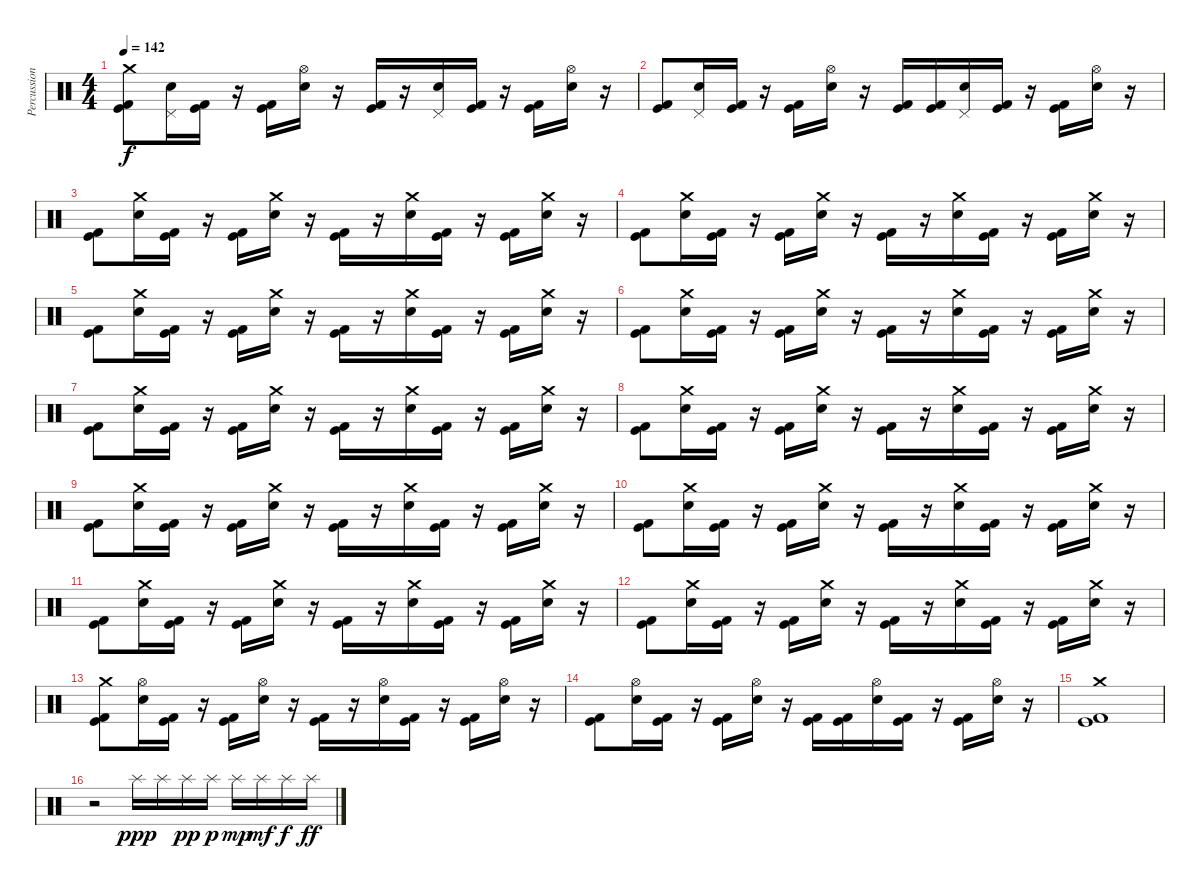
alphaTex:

\track ("Percussions" "Percussion") {instrument percussion}
\staff {score}
\articulation defaults
\ts (4 4)
\tempo 142
\clef neutral
\ks c
("Crash medium (hit)" "Kick (hit)" "Kick (hit) 2").8{dy f} ("Pedal Hi-Hat (hit)" "Electric Snare (hit)").16 ("Kick (hit)" "Kick (hit) 2").16 r.16 ("Kick (hit)" "Kick (hit) 2").16 ("Hi-Hat (open)" "Electric Snare (hit)").16 r.16 ("Kick (hit)" "Kick (hit) 2").16 r.16 ("Pedal Hi-Hat (hit)" "Electric Snare (hit)").16 ("Kick (hit)" "Kick (hit) 2").16 r.16 ("Kick (hit)" "Kick (hit) 2").16 ("Hi-Hat (open)" "Electric Snare (hit)").16 r.16 |
("Kick (hit)" "Kick (hit) 2").8 ("Pedal Hi-Hat (hit)" "Electric Snare (hit)").16 ("Kick (hit)" "Kick (hit) 2").16 r.16 ("Kick (hit)" "Kick (hit) 2").16 ("Hi-Hat (open)" "Electric Snare (hit)").16 r.16 ("Kick (hit)" "Kick (hit) 2").16 ("Kick (hit)" "Kick (hit) 2").16 ("Pedal Hi-Hat (hit)" "Electric Snare (hit)").16 ("Kick (hit)" "Kick (hit) 2").16 r.16 ("Kick (hit)" "Kick (hit) 2").16 ("Hi-Hat (open)" "Electric Snare (hit)").16 r.16 |
("Kick (hit)" "Kick (hit) 2").8 ("Crash medium (hit)" "Electric Snare (hit)").16 ("Kick (hit)" "Kick (hit) 2").16 r.16 ("Kick (hit)" "Kick (hit) 2").16 ("Crash medium (hit)" "Electric Snare (hit)").16 r.16 ("Kick (hit)" "Kick (hit) 2").16 r.16 ("Crash medium (hit)" "Electric Snare (hit)").16 ("Kick (hit)" "Kick (hit) 2").16 r.16 ("Kick (hit)" "Kick (hit) 2").16 ("Crash medium (hit)" "Electric Snare (hit)").16 r.16 |
("Kick (hit)" "Kick (hit) 2").8 ("Crash medium (hit)" "Electric Snare (hit)").16 ("Kick (hit)" "Kick (hit) 2").16 r.16 ("Kick (hit)" "Kick (hit) 2").16 ("Crash medium (hit)" "Electric Snare (hit)").16 r.16 ("Kick (hit)" "Kick (hit) 2").16 r.16 ("Crash medium (hit)" "Electric Snare (hit)").16 ("Kick (hit)" "Kick (hit) 2").16 r.16 ("Kick (hit)" "Kick (hit) 2").16 ("Crash medium (hit)" "Electric Snare (hit)").16 r.16 |
("Kick (hit)" "Kick (hit) 2").8 ("Crash medium (hit)" "Electric Snare (hit)").16 ("Kick (hit)" "Kick (hit) 2").16 r.16 ("Kick (hit)" "Kick (hit) 2").16 ("Crash medium (hit)" "Electric Snare (hit)").16 r.16 ("Kick (hit)" "Kick (hit) 2").16 r.16 ("Crash medium (hit)" "Electric Snare (hit)").16 ("Kick (hit)" "Kick (hit) 2").16 r.16 ("Kick (hit)" "Kick (hit) 2").16 ("Crash medium (hit)" "Electric Snare (hit)").16 r.16 |
("Kick (hit)" "Kick (hit) 2").8 ("Crash medium (hit)" "Electric Snare (hit)").16 ("Kick (hit)" "Kick (hit) 2").16 r.16 ("Kick (hit)" "Kick (hit) 2").16 ("Crash medium (hit)" "Electric Snare (hit)").16 r.16 ("Kick (hit)" "Kick (hit) 2").16 r.16 ("Crash medium (hit)" "Electric Snare (hit)").16 ("Kick (hit)" "Kick (hit) 2").16 r.16 ("Kick (hit)" "Kick (hit) 2").16 ("Crash medium (hit)" "Electric Snare (hit)").16 r.16 |
("Kick (hit)" "Kick (hit) 2").8 ("Crash medium (hit)" "Electric Snare (hit)").16 ("Kick (hit)" "Kick (hit) 2").16 r.16 ("Kick (hit)" "Kick (hit) 2").16 ("Crash medium (hit)" "Electric Snare (hit)").16 r.16 ("Kick (hit)" "Kick (hit) 2").16 r.16 ("Crash medium (hit)" "Electric Snare (hit)").16 ("Kick (hit)" "Kick (hit) 2").16 r.16 ("Kick (hit)" "Kick (hit) 2").16 ("Crash medium (hit)" "Electric Snare (hit)").16 r.16 |
("Kick (hit)" "Kick (hit) 2").8 ("Crash medium (hit)" "Electric Snare (hit)").16 ("Kick (hit)" "Kick (hit) 2").16 r.16 ("Kick (hit)" "Kick (hit) 2").16 ("Crash medium (hit)" "Electric Snare (hit)").16 r.16 ("Kick (hit)" "Kick (hit) 2").16 r.16 ("Crash medium (hit)" "Electric Snare (hit)").16 ("Kick (hit)" "Kick (hit) 2").16 r.16 ("Kick (hit)" "Kick (hit) 2").16 ("Crash medium (hit)" "Electric Snare (hit)").16 r.16 |
("Kick (hit)" "Kick (hit) 2").8 ("Crash medium (hit)" "Electric Snare (hit)").16 ("Kick (hit)" "Kick (hit) 2").16 r.16 ("Kick (hit)" "Kick (hit) 2").16 ("Crash medium (hit)" "Electric Snare (hit)").16 r.16 ("Kick (hit)" "Kick (hit) 2").16 r.16 ("Crash medium (hit)" "Electric Snare (hit)").16 ("Kick (hit)" "Kick (hit) 2").16 r.16 ("Kick (hit)" "Kick (hit) 2").16 ("Crash medium (hit)" "Electric Snare (hit)").16 r.16 |
("Kick (hit)" "Kick (hit) 2").8 ("Crash medium (hit)" "Electric Snare (hit)").16 ("Kick (hit)" "Kick (hit) 2").16 r.16 ("Kick (hit)" "Kick (hit) 2").16 ("Crash medium (hit)" "Electric Snare (hit)").16 r.16 ("Kick (hit)" "Kick (hit) 2").16 r.16 ("Crash medium (hit)" "Electric Snare (hit)").16 ("Kick (hit)" "Kick (hit) 2").16 r.16 ("Kick (hit)" "Kick (hit) 2").16 ("Crash medium (hit)" "Electric Snare (hit)").16 r.16 |
("Kick (hit)" "Kick (hit) 2").8 ("Crash medium (hit)" "Electric Snare (hit)").16 ("Kick (hit)" "Kick (hit) 2").16 r.16 ("Kick (hit)" "Kick (hit) 2").16 ("Crash medium (hit)" "Electric Snare (hit)").16 r.16 ("Kick (hit)" "Kick (hit) 2").16 r.16 ("Crash medium (hit)" "Electric Snare (hit)").16 ("Kick (hit)" "Kick (hit) 2").16 r.16 ("Kick (hit)" "Kick (hit) 2").16 ("Crash medium (hit)" "Electric Snare (hit)").16 r.16 |
("Kick (hit)" "Kick (hit) 2").8 ("Crash medium (hit)" "Electric Snare (hit)").16 ("Kick (hit)" "Kick (hit) 2").16 r.16 ("Kick (hit)" "Kick (hit) 2").16 ("Crash medium (hit)" "Electric Snare (hit)").16 r.16 ("Kick (hit)" "Kick (hit) 2").16 r.16 ("Crash medium (hit)" "Electric Snare (hit)").16 ("Kick (hit)" "Kick (hit) 2").16 r.16 ("Kick (hit)" "Kick (hit) 2").16 ("Crash medium (hit)" "Electric Snare (hit)").16 r.16 |
("Crash medium (hit)" "Kick (hit)" "Kick (hit) 2").8 ("Hi-Hat (open)" "Electric Snare (hit)").16 ("Kick (hit)" "Kick (hit) 2").16 r.16 ("Kick (hit)" "Kick (hit) 2").16 ("Hi-Hat (open)" "Electric Snare (hit)").16 r.16 ("Kick (hit)" "Kick (hit) 2").16 r.16 ("Hi-Hat (open)" "Electric Snare (hit)").16 ("Kick (hit)" "Kick (hit) 2").16 r.16 ("Kick (hit)" "Kick (hit) 2").16 ("Hi-Hat (open)" "Electric Snare (hit)").16 r.16 |
("Kick (hit)" "Kick (hit) 2").8 ("Hi-Hat (open)" "Electric Snare (hit)").16 ("Kick (hit)" "Kick (hit) 2").16 r.16 ("Kick (hit)" "Kick (hit) 2").16 ("Hi-Hat (open)" "Electric Snare (hit)").16 r.16 ("Kick (hit)" "Kick (hit) 2").16 ("Kick (hit)" "Kick (hit) 2").16 ("Hi-Hat (open)" "Electric Snare (hit)").16 ("Kick (hit)" "Kick (hit) 2").16 r.16 ("Kick (hit)" "Kick (hit) 2").16 ("Hi-Hat (open)" "Electric Snare (hit)").16 r.16 |
("Crash medium (hit)" "Kick (hit)" "Kick (hit) 2").1 |
r.2 "Splash (hit)".16{dy ppp} "Splash (hit)".16 "Splash (hit)".16{dy pp} "Splash (hit)".16{dy p} "Splash (hit)".16{dy mp} "Splash (hit)".16{dy mf} "Splash (hit)".16{dy f} "Splash (hit)".16{dy ff}
